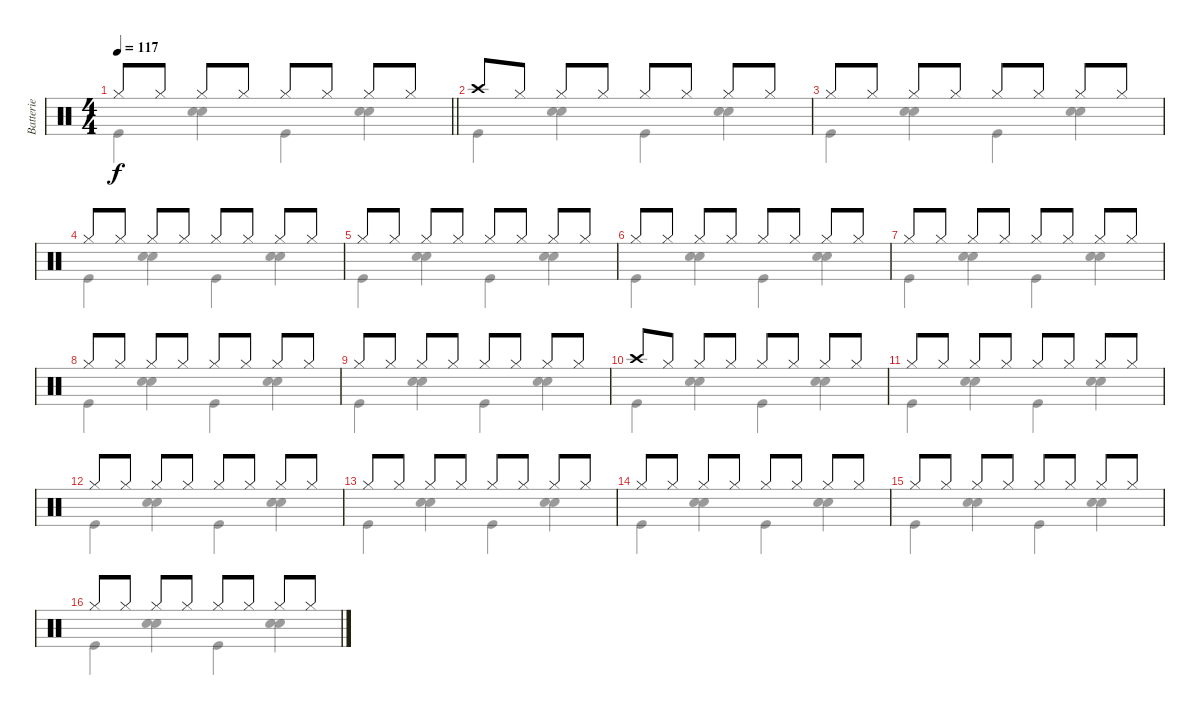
\track ("Batterie" "Batterie") {instrument percussion}
\staff {score}
\articulation defaults
\voice
\ts (4 4)
\tempo 117
\clef neutral
\barLineRight lightlight
\ks c "Hi-Hat (closed)".8{dy f} "Hi-Hat (closed)".8 "Hi-Hat (closed)".8 "Hi-Hat (closed)".8 "Hi-Hat (closed)".8 "Hi-Hat (closed)".8 "Hi-Hat (closed)".8 "Hi-Hat (closed)".8
|
"Crash high (hit)".8 "Hi-Hat (closed)".8 "Hi-Hat (closed)".8 "Hi-Hat (closed)".8 "Hi-Hat (closed)".8 "Hi-Hat (closed)".8 "Hi-Hat (closed)".8 "Hi-Hat (closed)".8 |
"Hi-Hat (closed)".8 "Hi-Hat (closed)".8 "Hi-Hat (closed)".8 "Hi-Hat (closed)".8 "Hi-Hat (closed)".8 "Hi-Hat (closed)".8 "Hi-Hat (closed)".8 "Hi-Hat (closed)".8 |
"Hi-Hat (closed)".8 "Hi-Hat (closed)".8 "Hi-Hat (closed)".8 "Hi-Hat (closed)".8 "Hi-Hat (closed)".8 "Hi-Hat (closed)".8 "Hi-Hat (closed)".8 "Hi-Hat (closed)".8 |
"Hi-Hat (closed)".8 "Hi-Hat (closed)".8 "Hi-Hat (closed)".8 "Hi-Hat (closed)".8 "Hi-Hat (closed)".8 "Hi-Hat (closed)".8 "Hi-Hat (closed)".8 "Hi-Hat (closed)".8 |
"Hi-Hat (closed)".8 "Hi-Hat (closed)".8 "Hi-Hat (closed)".8 "Hi-Hat (closed)".8 "Hi-Hat (closed)".8 "Hi-Hat (closed)".8 "Hi-Hat (closed)".8 "Hi-Hat (closed)".8 |
"Hi-Hat (closed)".8 "Hi-Hat (closed)".8 "Hi-Hat (closed)".8 "Hi-Hat (closed)".8 "Hi-Hat (closed)".8 "Hi-Hat (closed)".8 "Hi-Hat (closed)".8 "Hi-Hat (closed)".8 |
"Hi-Hat (closed)".8 "Hi-Hat (closed)".8 "Hi-Hat (closed)".8 "Hi-Hat (closed)".8 "Hi-Hat (closed)".8 "Hi-Hat (closed)".8 "Hi-Hat (closed)".8 "Hi-Hat (closed)".8 |
"Hi-Hat (closed)".8 "Hi-Hat (closed)".8 "Hi-Hat (closed)".8 "Hi-Hat (closed)".8 "Hi-Hat (closed)".8 "Hi-Hat (closed)".8 "Hi-Hat (closed)".8 "Hi-Hat (closed)".8 |
"Crash high (hit)".8 "Hi-Hat (closed)".8 "Hi-Hat (closed)".8 "Hi-Hat (closed)".8 "Hi-Hat (closed)".8 "Hi-Hat (closed)".8 "Hi-Hat (closed)".8 "Hi-Hat (closed)".8 |
"Hi-Hat (closed)".8 "Hi-Hat (closed)".8 "Hi-Hat (closed)".8 "Hi-Hat (closed)".8 "Hi-Hat (closed)".8 "Hi-Hat (closed)".8 "Hi-Hat (closed)".8 "Hi-Hat (closed)".8 |
"Hi-Hat (closed)".8 "Hi-Hat (closed)".8 "Hi-Hat (closed)".8 "Hi-Hat (closed)".8 "Hi-Hat (closed)".8 "Hi-Hat (closed)".8 "Hi-Hat (closed)".8 "Hi-Hat (closed)".8 |
"Hi-Hat (closed)".8 "Hi-Hat (closed)".8 "Hi-Hat (closed)".8 "Hi-Hat (closed)".8 "Hi-Hat (closed)".8 "Hi-Hat (closed)".8 "Hi-Hat (closed)".8 "Hi-Hat (closed)".8 |
"Hi-Hat (closed)".8 "Hi-Hat (closed)".8 "Hi-Hat (closed)".8 "Hi-Hat (closed)".8 "Hi-Hat (closed)".8 "Hi-Hat (closed)".8 "Hi-Hat (closed)".8 "Hi-Hat (closed)".8 |
"Hi-Hat (closed)".8 "Hi-Hat (closed)".8 "Hi-Hat (closed)".8 "Hi-Hat (closed)".8 "Hi-Hat (closed)".8 "Hi-Hat (closed)".8 "Hi-Hat (closed)".8 "Hi-Hat (closed)".8 |
"Hi-Hat (closed)".8 "Hi-Hat (closed)".8 "Hi-Hat (closed)".8 "Hi-Hat (closed)".8 "Hi-Hat (closed)".8 "Hi-Hat (closed)".8 "Hi-Hat (closed)".8 "Hi-Hat (closed)".8
\voice
\clef neutral
\ottava regular
\simile none
\barLineRight lightlight
\ks c "Kick (hit)".4{dy f}
("Hand Clap (hit)" "Snare (hit) 2").4 "Kick (hit)".4 ("Hand Clap (hit)" "Snare (hit) 2").4 |
"Kick (hit)".4 ("Hand Clap (hit)" "Snare (hit) 2").4 "Kick (hit)".4 ("Hand Clap (hit)" "Snare (hit) 2").4 |
"Kick (hit)".4 ("Hand Clap (hit)" "Snare (hit) 2").4 "Kick (hit)".4 ("Hand Clap (hit)" "Snare (hit) 2").4 |
"Kick (hit)".4 ("Hand Clap (hit)" "Snare (hit) 2").4 "Kick (hit)".4 ("Hand Clap (hit)" "Snare (hit) 2").4 |
"Kick (hit)".4 ("Hand Clap (hit)" "Snare (hit) 2").4 "Kick (hit)".4 ("Hand Clap (hit)" "Snare (hit) 2").4 |
"Kick (hit)".4 ("Hand Clap (hit)" "Snare (hit) 2").4 "Kick (hit)".4 ("Hand Clap (hit)" "Snare (hit) 2").4 |
"Kick (hit)".4 ("Hand Clap (hit)" "Snare (hit) 2").4 "Kick (hit)".4 ("Hand Clap (hit)" "Snare (hit) 2").4 |
"Kick (hit)".4 ("Hand Clap (hit)" "Snare (hit) 2").4 "Kick (hit)".4 ("Hand Clap (hit)" "Snare (hit) 2").4 |
"Kick (hit)".4 ("Hand Clap (hit)" "Snare (hit) 2").4 "Kick (hit)".4 ("Hand Clap (hit)" "Snare (hit) 2").4 |
"Kick (hit)".4 ("Hand Clap (hit)" "Snare (hit) 2").4 "Kick (hit)".4 ("Hand Clap (hit)" "Snare (hit) 2").4 |
"Kick (hit)".4 ("Hand Clap (hit)" "Snare (hit) 2").4 "Kick (hit)".4 ("Hand Clap (hit)" "Snare (hit) 2").4 |
"Kick (hit)".4 ("Hand Clap (hit)" "Snare (hit) 2").4 "Kick (hit)".4 ("Hand Clap (hit)" "Snare (hit) 2").4 |
"Kick (hit)".4 ("Hand Clap (hit)" "Snare (hit) 2").4 "Kick (hit)".4 ("Hand Clap (hit)" "Snare (hit) 2").4 |
"Kick (hit)".4 ("Hand Clap (hit)" "Snare (hit) 2").4 "Kick (hit)".4 ("Hand Clap (hit)" "Snare (hit) 2").4 |
"Kick (hit)".4 ("Hand Clap (hit)" "Snare (hit) 2").4 "Kick (hit)".4 ("Hand Clap (hit)" "Snare (hit) 2").4 |
"Kick (hit)".4 ("Hand Clap (hit)" "Snare (hit) 2").4 "Kick (hit)".4 ("Hand Clap (hit)" "Snare (hit) 2").4
